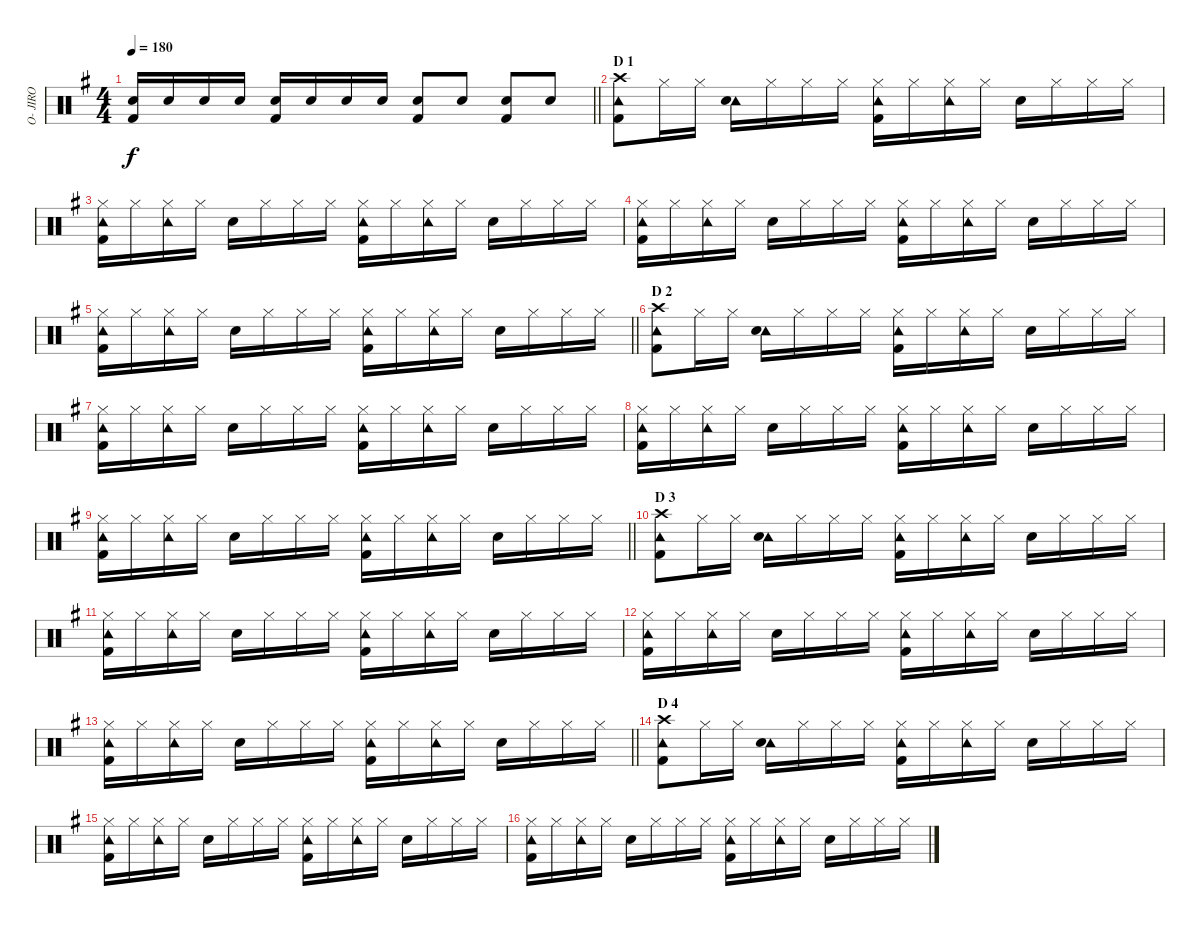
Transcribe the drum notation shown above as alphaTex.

\track ("O- JIRO" "O- JIRO") {instrument percussion}
\staff {score}
\articulation defaults
\ts (4 4)
\tempo 180
\clef neutral
\barLineRight lightlight
\ks g
("Snare (hit) 2" "Kick (hit) 2").16{dy f} "Snare (hit) 2".16 "Snare (hit) 2".16 "Snare (hit) 2".16 ("Snare (hit) 2" "Kick (hit) 2").16 "Snare (hit) 2".16 "Snare (hit) 2".16 "Snare (hit) 2".16 ("Snare (hit) 2" "Kick (hit) 2").8 "Snare (hit) 2".8 ("Snare (hit) 2" "Kick (hit) 2").8 "Snare (hit) 2".8 |
\section ("" "D 1")
("Crash high (hit)" "Kick (hit) 2" "Tambourine (hit)").8 "Hi-Hat (closed)".16 "Hi-Hat (closed)".16 ("Tambourine (hit)" "Snare (hit) 2").16 "Hi-Hat (closed)".16 "Hi-Hat (closed)".16 "Hi-Hat (closed)".16 ("Tambourine (hit)" "Kick (hit) 2" "Hi-Hat (closed)").16 "Hi-Hat (closed)".16 ("Hi-Hat (closed)" "Tambourine (hit)").16 "Hi-Hat (closed)".16 "Snare (hit) 2".16 "Hi-Hat (closed)".16 "Hi-Hat (closed)".16 "Hi-Hat (closed)".16 |
("Tambourine (hit)" "Kick (hit) 2" "Hi-Hat (closed)").16 "Hi-Hat (closed)".16 ("Hi-Hat (closed)" "Tambourine (hit)").16 "Hi-Hat (closed)".16 "Snare (hit) 2".16 "Hi-Hat (closed)".16 "Hi-Hat (closed)".16 "Hi-Hat (closed)".16 ("Tambourine (hit)" "Kick (hit) 2" "Hi-Hat (closed)").16 "Hi-Hat (closed)".16 ("Hi-Hat (closed)" "Tambourine (hit)").16 "Hi-Hat (closed)".16 "Snare (hit) 2".16 "Hi-Hat (closed)".16 "Hi-Hat (closed)".16 "Hi-Hat (closed)".16 |
("Tambourine (hit)" "Kick (hit) 2" "Hi-Hat (closed)").16 "Hi-Hat (closed)".16 ("Hi-Hat (closed)" "Tambourine (hit)").16 "Hi-Hat (closed)".16 "Snare (hit) 2".16 "Hi-Hat (closed)".16 "Hi-Hat (closed)".16 "Hi-Hat (closed)".16 ("Tambourine (hit)" "Kick (hit) 2" "Hi-Hat (closed)").16 "Hi-Hat (closed)".16 ("Hi-Hat (closed)" "Tambourine (hit)").16 "Hi-Hat (closed)".16 "Snare (hit) 2".16 "Hi-Hat (closed)".16 "Hi-Hat (closed)".16 "Hi-Hat (closed)".16 |
\barLineRight lightlight
("Tambourine (hit)" "Kick (hit) 2" "Hi-Hat (closed)").16 "Hi-Hat (closed)".16 ("Hi-Hat (closed)" "Tambourine (hit)").16 "Hi-Hat (closed)".16 "Snare (hit) 2".16 "Hi-Hat (closed)".16 "Hi-Hat (closed)".16 "Hi-Hat (closed)".16 ("Tambourine (hit)" "Kick (hit) 2" "Hi-Hat (closed)").16 "Hi-Hat (closed)".16 ("Hi-Hat (closed)" "Tambourine (hit)").16 "Hi-Hat (closed)".16 "Snare (hit) 2".16 "Hi-Hat (closed)".16 "Hi-Hat (closed)".16 "Hi-Hat (closed)".16 |
\section ("" "D 2")
("Crash high (hit)" "Kick (hit) 2" "Tambourine (hit)").8 "Hi-Hat (closed)".16 "Hi-Hat (closed)".16 ("Tambourine (hit)" "Snare (hit) 2").16 "Hi-Hat (closed)".16 "Hi-Hat (closed)".16 "Hi-Hat (closed)".16 ("Tambourine (hit)" "Kick (hit) 2" "Hi-Hat (closed)").16 "Hi-Hat (closed)".16 ("Hi-Hat (closed)" "Tambourine (hit)").16 "Hi-Hat (closed)".16 "Snare (hit) 2".16 "Hi-Hat (closed)".16 "Hi-Hat (closed)".16 "Hi-Hat (closed)".16 |
("Tambourine (hit)" "Kick (hit) 2" "Hi-Hat (closed)").16 "Hi-Hat (closed)".16 ("Hi-Hat (closed)" "Tambourine (hit)").16 "Hi-Hat (closed)".16 "Snare (hit) 2".16 "Hi-Hat (closed)".16 "Hi-Hat (closed)".16 "Hi-Hat (closed)".16 ("Tambourine (hit)" "Kick (hit) 2" "Hi-Hat (closed)").16 "Hi-Hat (closed)".16 ("Hi-Hat (closed)" "Tambourine (hit)").16 "Hi-Hat (closed)".16 "Snare (hit) 2".16 "Hi-Hat (closed)".16 "Hi-Hat (closed)".16 "Hi-Hat (closed)".16 |
("Tambourine (hit)" "Kick (hit) 2" "Hi-Hat (closed)").16 "Hi-Hat (closed)".16 ("Hi-Hat (closed)" "Tambourine (hit)").16 "Hi-Hat (closed)".16 "Snare (hit) 2".16 "Hi-Hat (closed)".16 "Hi-Hat (closed)".16 "Hi-Hat (closed)".16 ("Tambourine (hit)" "Kick (hit) 2" "Hi-Hat (closed)").16 "Hi-Hat (closed)".16 ("Hi-Hat (closed)" "Tambourine (hit)").16 "Hi-Hat (closed)".16 "Snare (hit) 2".16 "Hi-Hat (closed)".16 "Hi-Hat (closed)".16 "Hi-Hat (closed)".16 |
\barLineRight lightlight
("Tambourine (hit)" "Kick (hit) 2" "Hi-Hat (closed)").16 "Hi-Hat (closed)".16 ("Hi-Hat (closed)" "Tambourine (hit)").16 "Hi-Hat (closed)".16 "Snare (hit) 2".16 "Hi-Hat (closed)".16 "Hi-Hat (closed)".16 "Hi-Hat (closed)".16 ("Tambourine (hit)" "Kick (hit) 2" "Hi-Hat (closed)").16 "Hi-Hat (closed)".16 ("Hi-Hat (closed)" "Tambourine (hit)").16 "Hi-Hat (closed)".16 "Snare (hit) 2".16 "Hi-Hat (closed)".16 "Hi-Hat (closed)".16 "Hi-Hat (closed)".16 |
\section ("" "D 3")
("Crash high (hit)" "Kick (hit) 2" "Tambourine (hit)").8 "Hi-Hat (closed)".16 "Hi-Hat (closed)".16 ("Tambourine (hit)" "Snare (hit) 2").16 "Hi-Hat (closed)".16 "Hi-Hat (closed)".16 "Hi-Hat (closed)".16 ("Tambourine (hit)" "Kick (hit) 2" "Hi-Hat (closed)").16 "Hi-Hat (closed)".16 ("Hi-Hat (closed)" "Tambourine (hit)").16 "Hi-Hat (closed)".16 "Snare (hit) 2".16 "Hi-Hat (closed)".16 "Hi-Hat (closed)".16 "Hi-Hat (closed)".16 |
("Tambourine (hit)" "Kick (hit) 2" "Hi-Hat (closed)").16 "Hi-Hat (closed)".16 ("Hi-Hat (closed)" "Tambourine (hit)").16 "Hi-Hat (closed)".16 "Snare (hit) 2".16 "Hi-Hat (closed)".16 "Hi-Hat (closed)".16 "Hi-Hat (closed)".16 ("Tambourine (hit)" "Kick (hit) 2" "Hi-Hat (closed)").16 "Hi-Hat (closed)".16 ("Hi-Hat (closed)" "Tambourine (hit)").16 "Hi-Hat (closed)".16 "Snare (hit) 2".16 "Hi-Hat (closed)".16 "Hi-Hat (closed)".16 "Hi-Hat (closed)".16 |
("Tambourine (hit)" "Kick (hit) 2" "Hi-Hat (closed)").16 "Hi-Hat (closed)".16 ("Hi-Hat (closed)" "Tambourine (hit)").16 "Hi-Hat (closed)".16 "Snare (hit) 2".16 "Hi-Hat (closed)".16 "Hi-Hat (closed)".16 "Hi-Hat (closed)".16 ("Tambourine (hit)" "Kick (hit) 2" "Hi-Hat (closed)").16 "Hi-Hat (closed)".16 ("Hi-Hat (closed)" "Tambourine (hit)").16 "Hi-Hat (closed)".16 "Snare (hit) 2".16 "Hi-Hat (closed)".16 "Hi-Hat (closed)".16 "Hi-Hat (closed)".16 |
\barLineRight lightlight
("Tambourine (hit)" "Kick (hit) 2" "Hi-Hat (closed)").16 "Hi-Hat (closed)".16 ("Hi-Hat (closed)" "Tambourine (hit)").16 "Hi-Hat (closed)".16 "Snare (hit) 2".16 "Hi-Hat (closed)".16 "Hi-Hat (closed)".16 "Hi-Hat (closed)".16 ("Tambourine (hit)" "Kick (hit) 2" "Hi-Hat (closed)").16 "Hi-Hat (closed)".16 ("Hi-Hat (closed)" "Tambourine (hit)").16 "Hi-Hat (closed)".16 "Snare (hit) 2".16 "Hi-Hat (closed)".16 "Hi-Hat (closed)".16 "Hi-Hat (closed)".16 |
\section ("" "D 4")
("Crash high (hit)" "Kick (hit) 2" "Tambourine (hit)").8 "Hi-Hat (closed)".16 "Hi-Hat (closed)".16 ("Tambourine (hit)" "Snare (hit) 2").16 "Hi-Hat (closed)".16 "Hi-Hat (closed)".16 "Hi-Hat (closed)".16 ("Tambourine (hit)" "Kick (hit) 2" "Hi-Hat (closed)").16 "Hi-Hat (closed)".16 ("Hi-Hat (closed)" "Tambourine (hit)").16 "Hi-Hat (closed)".16 "Snare (hit) 2".16 "Hi-Hat (closed)".16 "Hi-Hat (closed)".16 "Hi-Hat (closed)".16 |
("Tambourine (hit)" "Kick (hit) 2" "Hi-Hat (closed)").16 "Hi-Hat (closed)".16 ("Hi-Hat (closed)" "Tambourine (hit)").16 "Hi-Hat (closed)".16 "Snare (hit) 2".16 "Hi-Hat (closed)".16 "Hi-Hat (closed)".16 "Hi-Hat (closed)".16 ("Tambourine (hit)" "Kick (hit) 2" "Hi-Hat (closed)").16 "Hi-Hat (closed)".16 ("Hi-Hat (closed)" "Tambourine (hit)").16 "Hi-Hat (closed)".16 "Snare (hit) 2".16 "Hi-Hat (closed)".16 "Hi-Hat (closed)".16 "Hi-Hat (closed)".16 |
("Tambourine (hit)" "Kick (hit) 2" "Hi-Hat (closed)").16 "Hi-Hat (closed)".16 ("Hi-Hat (closed)" "Tambourine (hit)").16 "Hi-Hat (closed)".16 "Snare (hit) 2".16 "Hi-Hat (closed)".16 "Hi-Hat (closed)".16 "Hi-Hat (closed)".16 ("Tambourine (hit)" "Kick (hit) 2" "Hi-Hat (closed)").16 "Hi-Hat (closed)".16 ("Hi-Hat (closed)" "Tambourine (hit)").16 "Hi-Hat (closed)".16 "Snare (hit) 2".16 "Hi-Hat (closed)".16 "Hi-Hat (closed)".16 "Hi-Hat (closed)".16
